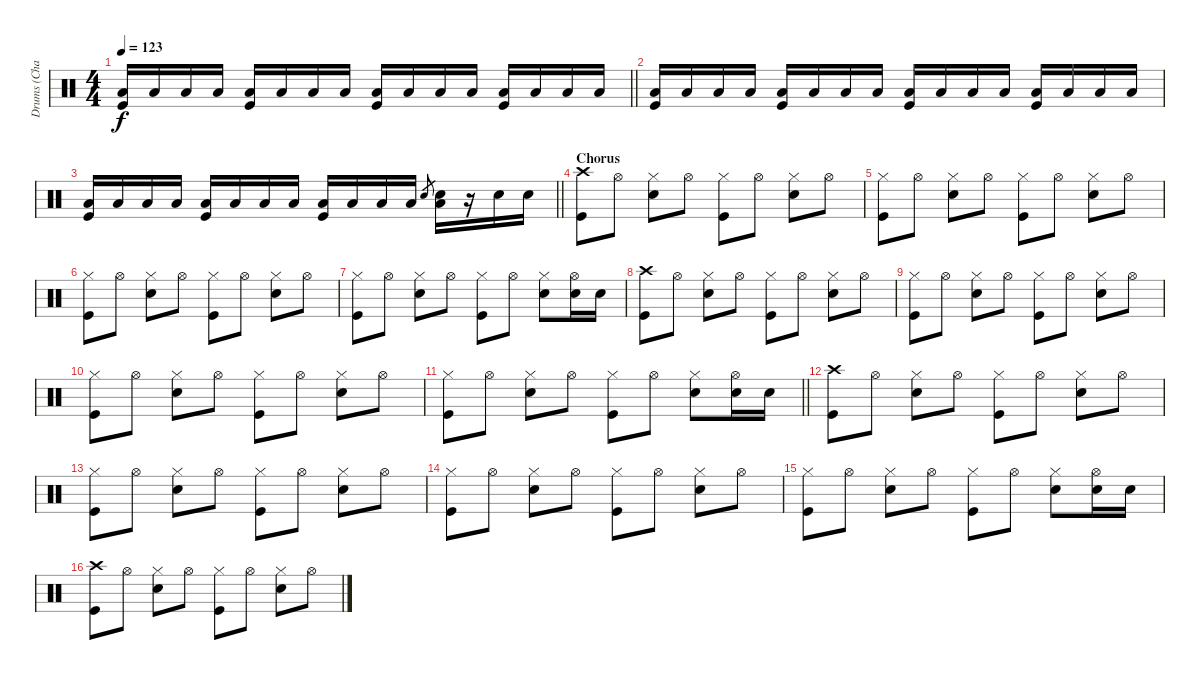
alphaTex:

\track ("Drums (Chad Smith)" "Drums (Cha") {instrument percussion}
\staff {score}
\articulation defaults
\ts (4 4)
\tempo 123
\clef neutral
\barLineRight lightlight
\ks c
("Kick (hit)" "Low Floor Tom (hit)").16{dy f} "Low Floor Tom (hit)".16 "Low Floor Tom (hit)".16 "Low Floor Tom (hit)".16 ("Kick (hit)" "Low Floor Tom (hit)").16 "Low Floor Tom (hit)".16 "Low Floor Tom (hit)".16 "Low Floor Tom (hit)".16 ("Kick (hit)" "Low Floor Tom (hit)").16 "Low Floor Tom (hit)".16 "Low Floor Tom (hit)".16 "Low Floor Tom (hit)".16 ("Kick (hit)" "Low Floor Tom (hit)").16 "Low Floor Tom (hit)".16 "Low Floor Tom (hit)".16 "Low Floor Tom (hit)".16 |
("Kick (hit)" "Low Floor Tom (hit)").16 "Low Floor Tom (hit)".16 "Low Floor Tom (hit)".16 "Low Floor Tom (hit)".16 ("Kick (hit)" "Low Floor Tom (hit)").16 "Low Floor Tom (hit)".16 "Low Floor Tom (hit)".16 "Low Floor Tom (hit)".16 ("Kick (hit)" "Low Floor Tom (hit)").16 "Low Floor Tom (hit)".16 "Low Floor Tom (hit)".16 "Low Floor Tom (hit)".16 ("Kick (hit)" "Low Floor Tom (hit)").16 "Low Floor Tom (hit)".16 "Low Floor Tom (hit)".16 "Low Floor Tom (hit)".16 |
\barLineRight lightlight
("Kick (hit)" "Low Floor Tom (hit)").16 "Low Floor Tom (hit)".16 "Low Floor Tom (hit)".16 "Low Floor Tom (hit)".16 ("Kick (hit)" "Low Floor Tom (hit)").16 "Low Floor Tom (hit)".16 "Low Floor Tom (hit)".16 "Low Floor Tom (hit)".16 ("Kick (hit)" "Low Floor Tom (hit)").16 "Low Floor Tom (hit)".16 "Low Floor Tom (hit)".16 "Low Floor Tom (hit)".16 "Snare (hit) 2".8{gr} ("Snare (hit) 2" "Low Floor Tom (hit)").16 r.16 "Snare (hit) 2".16 "Snare (hit) 2".16 |
\section ("" "Chorus")
("Crash high (hit)" "Kick (hit)").8 "Hi-Hat (open)".8 ("Hi-Hat (closed)" "Snare (hit) 2").8 "Hi-Hat (open)".8 ("Hi-Hat (closed)" "Kick (hit)").8 "Hi-Hat (open)".8 ("Hi-Hat (closed)" "Snare (hit) 2").8 "Hi-Hat (open)".8 |
("Hi-Hat (closed)" "Kick (hit)").8 "Hi-Hat (open)".8 ("Hi-Hat (closed)" "Snare (hit) 2").8 "Hi-Hat (open)".8 ("Hi-Hat (closed)" "Kick (hit)").8 "Hi-Hat (open)".8 ("Hi-Hat (closed)" "Snare (hit) 2").8 "Hi-Hat (open)".8 |
("Hi-Hat (closed)" "Kick (hit)").8 "Hi-Hat (open)".8 ("Hi-Hat (closed)" "Snare (hit) 2").8 "Hi-Hat (open)".8 ("Hi-Hat (closed)" "Kick (hit)").8 "Hi-Hat (open)".8 ("Hi-Hat (closed)" "Snare (hit) 2").8 "Hi-Hat (open)".8 |
("Hi-Hat (closed)" "Kick (hit)").8 "Hi-Hat (open)".8 ("Hi-Hat (closed)" "Snare (hit) 2").8 "Hi-Hat (open)".8 ("Hi-Hat (closed)" "Kick (hit)").8 "Hi-Hat (open)".8 ("Hi-Hat (closed)" "Snare (hit) 2").8 ("Hi-Hat (open)" "Snare (hit) 2").16 "Snare (hit) 2".16 |
("Crash high (hit)" "Kick (hit)").8 "Hi-Hat (open)".8 ("Hi-Hat (closed)" "Snare (hit) 2").8 "Hi-Hat (open)".8 ("Hi-Hat (closed)" "Kick (hit)").8 "Hi-Hat (open)".8 ("Hi-Hat (closed)" "Snare (hit) 2").8 "Hi-Hat (open)".8 |
("Hi-Hat (closed)" "Kick (hit)").8 "Hi-Hat (open)".8 ("Hi-Hat (closed)" "Snare (hit) 2").8 "Hi-Hat (open)".8 ("Hi-Hat (closed)" "Kick (hit)").8 "Hi-Hat (open)".8 ("Hi-Hat (closed)" "Snare (hit) 2").8 "Hi-Hat (open)".8 |
("Hi-Hat (closed)" "Kick (hit)").8 "Hi-Hat (open)".8 ("Hi-Hat (closed)" "Snare (hit) 2").8 "Hi-Hat (open)".8 ("Hi-Hat (closed)" "Kick (hit)").8 "Hi-Hat (open)".8 ("Hi-Hat (closed)" "Snare (hit) 2").8 "Hi-Hat (open)".8 |
\barLineRight lightlight
("Hi-Hat (closed)" "Kick (hit)").8 "Hi-Hat (open)".8 ("Hi-Hat (closed)" "Snare (hit) 2").8 "Hi-Hat (open)".8 ("Hi-Hat (closed)" "Kick (hit)").8 "Hi-Hat (open)".8 ("Hi-Hat (closed)" "Snare (hit) 2").8 ("Hi-Hat (open)" "Snare (hit) 2").16 "Snare (hit) 2".16 |
("Crash high (hit)" "Kick (hit)").8 "Hi-Hat (open)".8 ("Hi-Hat (closed)" "Snare (hit) 2").8 "Hi-Hat (open)".8 ("Hi-Hat (closed)" "Kick (hit)").8 "Hi-Hat (open)".8 ("Hi-Hat (closed)" "Snare (hit) 2").8 "Hi-Hat (open)".8 |
("Hi-Hat (closed)" "Kick (hit)").8 "Hi-Hat (open)".8 ("Hi-Hat (closed)" "Snare (hit) 2").8 "Hi-Hat (open)".8 ("Hi-Hat (closed)" "Kick (hit)").8 "Hi-Hat (open)".8 ("Hi-Hat (closed)" "Snare (hit) 2").8 "Hi-Hat (open)".8 |
("Hi-Hat (closed)" "Kick (hit)").8 "Hi-Hat (open)".8 ("Hi-Hat (closed)" "Snare (hit) 2").8 "Hi-Hat (open)".8 ("Hi-Hat (closed)" "Kick (hit)").8 "Hi-Hat (open)".8 ("Hi-Hat (closed)" "Snare (hit) 2").8 "Hi-Hat (open)".8 |
("Hi-Hat (closed)" "Kick (hit)").8 "Hi-Hat (open)".8 ("Hi-Hat (closed)" "Snare (hit) 2").8 "Hi-Hat (open)".8 ("Hi-Hat (closed)" "Kick (hit)").8 "Hi-Hat (open)".8 ("Hi-Hat (closed)" "Snare (hit) 2").8 ("Hi-Hat (open)" "Snare (hit) 2").16 "Snare (hit) 2".16 |
("Crash high (hit)" "Kick (hit)").8 "Hi-Hat (open)".8 ("Hi-Hat (closed)" "Snare (hit) 2").8 "Hi-Hat (open)".8 ("Hi-Hat (closed)" "Kick (hit)").8 "Hi-Hat (open)".8 ("Hi-Hat (closed)" "Snare (hit) 2").8 "Hi-Hat (open)".8
